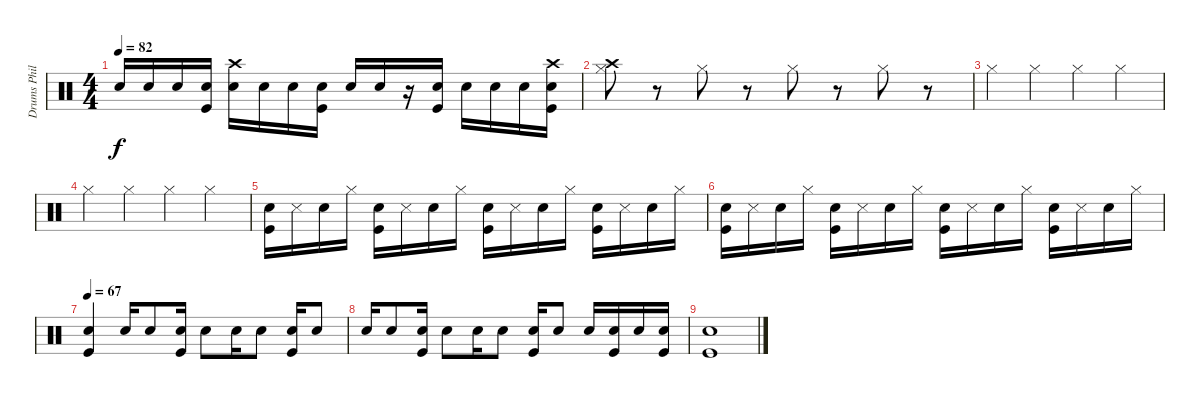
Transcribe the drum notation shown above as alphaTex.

\track ("Drums Phill" "Drums Phil") {instrument percussion}
\staff {score}
\articulation defaults
\ts (4 4)
\tempo 82
\clef neutral
\ks c "Snare (hit) 2".16{dy f} "Snare (hit) 2".16 "Snare (hit) 2".16
("Snare (hit) 2" "Kick (hit)").16 ("Crash high (hit)" "Snare (hit) 2").16 "Snare (hit) 2".16 "Snare (hit) 2".16 ("Snare (hit) 2" "Kick (hit)").16 "Snare (hit) 2".16 "Snare (hit) 2".16 r.16 ("Snare (hit) 2" "Kick (hit)").16 "Snare (hit) 2".16 "Snare (hit) 2".16 "Snare (hit) 2".16 ("Crash high (hit)" "Snare (hit) 2" "Kick (hit)").16 |
("Crash high (hit)" "Hi-Hat (closed)").8 r.8 "Hi-Hat (closed)".8 r.8 "Hi-Hat (closed)".8 r.8 "Hi-Hat (closed)".8 r.8 |
"Hi-Hat (closed)".4 "Hi-Hat (closed)".4 "Hi-Hat (closed)".4 "Hi-Hat (closed)".4 |
"Hi-Hat (closed)".4 "Hi-Hat (closed)".4 "Hi-Hat (closed)".4 "Hi-Hat (closed)".4 |
("Snare (hit) 2" "Kick (hit)").16 "Snare (side stick) 3".16 "Snare (hit) 2".16 "Hi-Hat (closed)".16 ("Snare (hit) 2" "Kick (hit)").16 "Snare (side stick) 3".16 "Snare (hit) 2".16 "Hi-Hat (closed)".16 ("Snare (hit) 2" "Kick (hit)").16 "Snare (side stick) 3".16 "Snare (hit) 2".16 "Hi-Hat (closed)".16 ("Snare (hit) 2" "Kick (hit)").16 "Snare (side stick) 3".16 "Snare (hit) 2".16 "Hi-Hat (closed)".16 |
("Snare (hit) 2" "Kick (hit)").16 "Snare (side stick) 3".16 "Snare (hit) 2".16 "Hi-Hat (closed)".16 ("Snare (hit) 2" "Kick (hit)").16 "Snare (side stick) 3".16 "Snare (hit) 2".16 "Hi-Hat (closed)".16 ("Snare (hit) 2" "Kick (hit)").16 "Snare (side stick) 3".16 "Snare (hit) 2".16 "Hi-Hat (closed)".16 ("Snare (hit) 2" "Kick (hit)").16 "Snare (side stick) 3".16 "Snare (hit) 2".16 "Hi-Hat (closed)".16 |
\tempo 67
("Snare (hit) 2" "Kick (hit)").4 "Snare (hit) 2".16 "Snare (hit) 2".8 ("Snare (hit) 2" "Kick (hit)").16 "Snare (hit) 2".8 "Snare (hit) 2".16 "Snare (hit) 2".8 ("Snare (hit) 2" "Kick (hit)").16 "Snare (hit) 2".8 |
"Snare (hit) 2".16 "Snare (hit) 2".8 ("Snare (hit) 2" "Kick (hit)").16 "Snare (hit) 2".8 "Snare (hit) 2".16 "Snare (hit) 2".8 ("Snare (hit) 2" "Kick (hit)").16 "Snare (hit) 2".8 "Snare (hit) 2".16 ("Snare (hit) 2" "Kick (hit)").16 "Snare (hit) 2".16 ("Snare (hit) 2" "Kick (hit)").16 |
("Kick (hit)" "Snare (hit) 2").1
